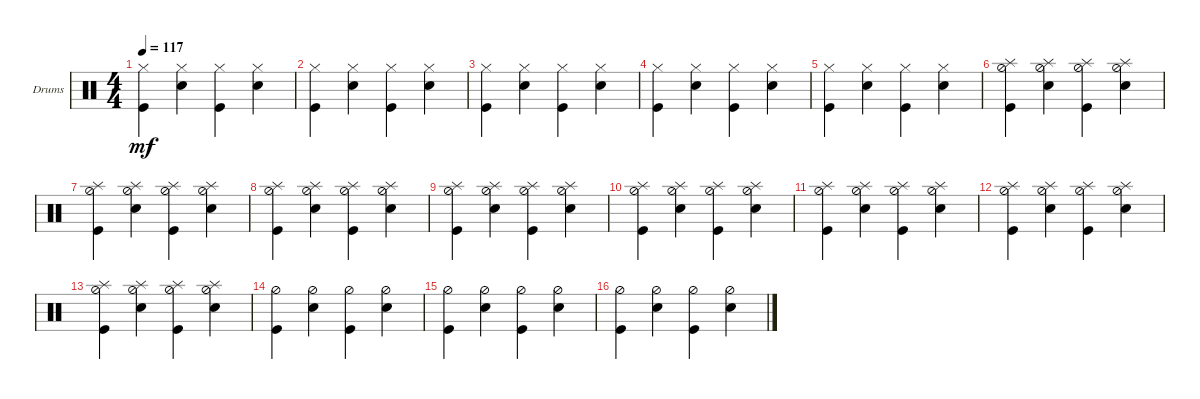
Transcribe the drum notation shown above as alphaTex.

\defaultSystemsLayout 4
\bracketExtendMode groupsimilarinstruments
\firstSystemTrackNameOrientation horizontal
\otherSystemsTrackNameOrientation horizontal
\track ("Drumkit" "Drums") {instrument percussion}
\staff {score}
\articulation defaults
\ts (4 4)
\tempo 117
\clef neutral
\ks c
("Kick (hit)" "Hi-Hat (closed)").4{dy mf} ("Snare (hit) 2" "Hi-Hat (closed)").4 ("Kick (hit)" "Hi-Hat (closed)").4 ("Snare (hit) 2" "Hi-Hat (closed)").4 |
("Kick (hit)" "Hi-Hat (closed)").4 ("Snare (hit) 2" "Hi-Hat (closed)").4 ("Kick (hit)" "Hi-Hat (closed)").4 ("Snare (hit) 2" "Hi-Hat (closed)").4 |
("Kick (hit)" "Hi-Hat (closed)").4 ("Snare (hit) 2" "Hi-Hat (closed)").4 ("Kick (hit)" "Hi-Hat (closed)").4 ("Snare (hit) 2" "Hi-Hat (closed)").4 |
("Kick (hit)" "Hi-Hat (closed)").4 ("Snare (hit) 2" "Hi-Hat (closed)").4 ("Kick (hit)" "Hi-Hat (closed)").4 ("Snare (hit) 2" "Hi-Hat (closed)").4 |
("Kick (hit)" "Hi-Hat (closed)").4 ("Snare (hit) 2" "Hi-Hat (closed)").4 ("Kick (hit)" "Hi-Hat (closed)").4 ("Snare (hit) 2" "Hi-Hat (closed)").4 |
("Kick (hit)" "Hi-Hat (half)" "Splash (hit)").4 ("Snare (hit) 2" "Hi-Hat (half)" "Splash (hit)").4 ("Kick (hit)" "Hi-Hat (half)" "Splash (hit)").4 ("Snare (hit) 2" "Hi-Hat (half)" "Splash (hit)").4 |
("Kick (hit)" "Hi-Hat (half)" "Splash (hit)").4 ("Snare (hit) 2" "Hi-Hat (half)" "Splash (hit)").4 ("Kick (hit)" "Hi-Hat (half)" "Splash (hit)").4 ("Snare (hit) 2" "Hi-Hat (half)" "Splash (hit)").4 |
("Kick (hit)" "Hi-Hat (half)" "Splash (hit)").4 ("Snare (hit) 2" "Hi-Hat (half)" "Splash (hit)").4 ("Kick (hit)" "Hi-Hat (half)" "Splash (hit)").4 ("Snare (hit) 2" "Hi-Hat (half)" "Splash (hit)").4 |
("Kick (hit)" "Hi-Hat (half)" "Splash (hit)").4 ("Snare (hit) 2" "Hi-Hat (half)" "Splash (hit)").4 ("Kick (hit)" "Hi-Hat (half)" "Splash (hit)").4 ("Snare (hit) 2" "Hi-Hat (half)" "Splash (hit)").4 |
("Kick (hit)" "Hi-Hat (half)" "Splash (hit)").4 ("Snare (hit) 2" "Hi-Hat (half)" "Splash (hit)").4 ("Kick (hit)" "Hi-Hat (half)" "Splash (hit)").4 ("Snare (hit) 2" "Hi-Hat (half)" "Splash (hit)").4 |
("Kick (hit)" "Hi-Hat (half)" "Splash (hit)").4 ("Snare (hit) 2" "Hi-Hat (half)" "Splash (hit)").4 ("Kick (hit)" "Hi-Hat (half)" "Splash (hit)").4 ("Snare (hit) 2" "Hi-Hat (half)" "Splash (hit)").4 |
("Kick (hit)" "Hi-Hat (half)" "Splash (hit)").4 ("Snare (hit) 2" "Hi-Hat (half)" "Splash (hit)").4 ("Kick (hit)" "Hi-Hat (half)" "Splash (hit)").4 ("Snare (hit) 2" "Hi-Hat (half)" "Splash (hit)").4 |
("Kick (hit)" "Hi-Hat (half)" "Splash (hit)").4 ("Snare (hit) 2" "Hi-Hat (half)" "Splash (hit)").4 ("Kick (hit)" "Hi-Hat (half)" "Splash (hit)").4 ("Snare (hit) 2" "Hi-Hat (half)" "Splash (hit)").4 |
("Kick (hit)" "Hi-Hat (half)").4 ("Snare (hit) 2" "Hi-Hat (half)").4 ("Kick (hit)" "Hi-Hat (half)").4 ("Snare (hit) 2" "Hi-Hat (half)").4 |
("Kick (hit)" "Hi-Hat (half)").4 ("Snare (hit) 2" "Hi-Hat (half)").4 ("Kick (hit)" "Hi-Hat (half)").4 ("Snare (hit) 2" "Hi-Hat (half)").4 |
("Kick (hit)" "Hi-Hat (half)").4 ("Snare (hit) 2" "Hi-Hat (half)").4 ("Kick (hit)" "Hi-Hat (half)").4 ("Snare (hit) 2" "Hi-Hat (half)").4
